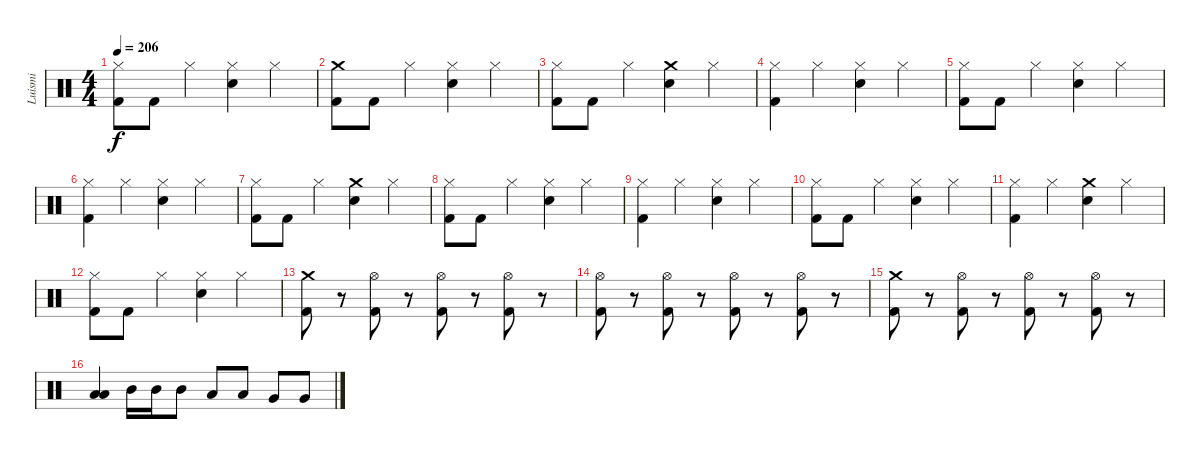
\track ("Luismi" "Luismi") {instrument percussion}
\staff {score}
\articulation defaults
\ts (4 4)
\tempo 206
\clef neutral
\ks c
("Hi-Hat (closed)" "Kick (hit) 2").8{dy f} "Kick (hit) 2".8 "Hi-Hat (closed)".4 ("Hi-Hat (closed)" "Snare (hit) 2").4 "Hi-Hat (closed)".4 |
("Crash medium (hit)" "Kick (hit) 2").8 "Kick (hit) 2".8 "Hi-Hat (closed)".4 ("Hi-Hat (closed)" "Snare (hit) 2").4 "Hi-Hat (closed)".4 |
("Hi-Hat (closed)" "Kick (hit) 2").8 "Kick (hit) 2".8 "Hi-Hat (closed)".4 ("Crash medium (hit)" "Snare (hit) 2").4 "Hi-Hat (closed)".4 |
("Hi-Hat (closed)" "Kick (hit) 2").4 "Hi-Hat (closed)".4 ("Hi-Hat (closed)" "Snare (hit) 2").4 "Hi-Hat (closed)".4 |
("Hi-Hat (closed)" "Kick (hit) 2").8 "Kick (hit) 2".8 "Hi-Hat (closed)".4 ("Hi-Hat (closed)" "Snare (hit) 2").4 "Hi-Hat (closed)".4 |
("Hi-Hat (closed)" "Kick (hit) 2").4 "Hi-Hat (closed)".4 ("Hi-Hat (closed)" "Snare (hit) 2").4 "Hi-Hat (closed)".4 |
("Hi-Hat (closed)" "Kick (hit) 2").8 "Kick (hit) 2".8 "Hi-Hat (closed)".4 ("Crash medium (hit)" "Snare (hit) 2").4 "Hi-Hat (closed)".4 |
("Hi-Hat (closed)" "Kick (hit) 2").8 "Kick (hit) 2".8 "Hi-Hat (closed)".4 ("Hi-Hat (closed)" "Snare (hit) 2").4 "Hi-Hat (closed)".4 |
("Hi-Hat (closed)" "Kick (hit) 2").4 "Hi-Hat (closed)".4 ("Hi-Hat (closed)" "Snare (hit) 2").4 "Hi-Hat (closed)".4 |
("Hi-Hat (closed)" "Kick (hit) 2").8 "Kick (hit) 2".8 "Hi-Hat (closed)".4 ("Hi-Hat (closed)" "Snare (hit) 2").4 "Hi-Hat (closed)".4 |
("Hi-Hat (closed)" "Kick (hit) 2").4 "Hi-Hat (closed)".4 ("Crash medium (hit)" "Snare (hit) 2").4 "Hi-Hat (closed)".4 |
("Hi-Hat (closed)" "Kick (hit) 2").8 "Kick (hit) 2".8 "Hi-Hat (closed)".4 ("Hi-Hat (closed)" "Snare (hit) 2").4 "Hi-Hat (closed)".4 |
("Crash medium (hit)" "Kick (hit) 2").8 r.8 ("Hi-Hat (open)" "Kick (hit) 2").8 r.8 ("Hi-Hat (open)" "Kick (hit) 2").8 r.8 ("Hi-Hat (open)" "Kick (hit) 2").8 r.8 |
("Hi-Hat (open)" "Kick (hit) 2").8 r.8 ("Hi-Hat (open)" "Kick (hit) 2").8 r.8 ("Hi-Hat (open)" "Kick (hit) 2").8 r.8 ("Hi-Hat (open)" "Kick (hit) 2").8 r.8 |
("Crash medium (hit)" "Kick (hit) 2").8 r.8 ("Hi-Hat (open)" "Kick (hit) 2").8 r.8 ("Hi-Hat (open)" "Kick (hit) 2").8 r.8 ("Hi-Hat (open)" "Kick (hit) 2").8 r.8 |
("Low Tom (hit)" "Low Tom (hit)").4 "Mid Tom (hit)".16 "Mid Tom (hit)".16 "Mid Tom (hit)".8 "Low Tom (hit)".8 "Low Tom (hit)".8 "Very Low Tom (hit)".8 "Very Low Tom (hit)".8
